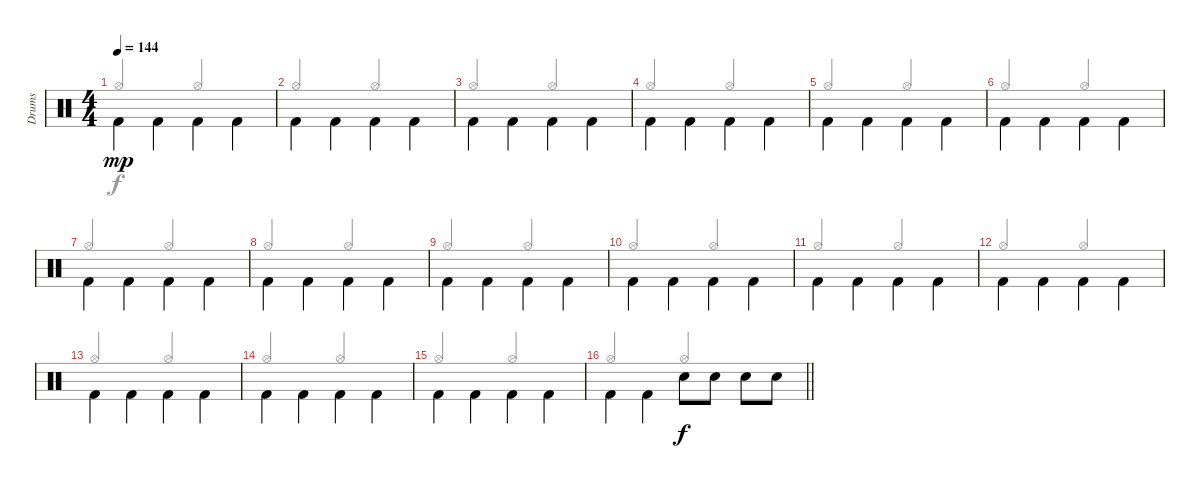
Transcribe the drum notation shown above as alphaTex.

\track ("Drums" "Drums") {instrument percussion}
\staff {score}
\articulation defaults
\voice
\ts (4 4)
\tempo 144
\clef neutral
\ks c "Kick (hit) 2".4{dy mp beam Down} "Kick (hit) 2".4{beam Down} "Kick (hit) 2".4{beam Down} "Kick (hit) 2".4{beam Down}
|
"Kick (hit) 2".4{beam Down} "Kick (hit) 2".4{beam Down} "Kick (hit) 2".4{beam Down} "Kick (hit) 2".4{beam Down} |
"Kick (hit) 2".4{beam Down} "Kick (hit) 2".4{beam Down} "Kick (hit) 2".4{beam Down} "Kick (hit) 2".4{beam Down} |
"Kick (hit) 2".4{beam Down} "Kick (hit) 2".4{beam Down} "Kick (hit) 2".4{beam Down} "Kick (hit) 2".4{beam Down} |
"Kick (hit) 2".4{beam Down} "Kick (hit) 2".4{beam Down} "Kick (hit) 2".4{beam Down} "Kick (hit) 2".4{beam Down} |
"Kick (hit) 2".4{beam Down} "Kick (hit) 2".4{beam Down} "Kick (hit) 2".4{beam Down} "Kick (hit) 2".4{beam Down} |
"Kick (hit) 2".4{beam Down} "Kick (hit) 2".4{beam Down} "Kick (hit) 2".4{beam Down} "Kick (hit) 2".4{beam Down} |
"Kick (hit) 2".4{beam Down} "Kick (hit) 2".4{beam Down} "Kick (hit) 2".4{beam Down} "Kick (hit) 2".4{beam Down} |
"Kick (hit) 2".4{beam Down} "Kick (hit) 2".4{beam Down} "Kick (hit) 2".4{beam Down} "Kick (hit) 2".4{beam Down} |
"Kick (hit) 2".4{beam Down} "Kick (hit) 2".4{beam Down} "Kick (hit) 2".4{beam Down} "Kick (hit) 2".4{beam Down} |
"Kick (hit) 2".4{beam Down} "Kick (hit) 2".4{beam Down} "Kick (hit) 2".4{beam Down} "Kick (hit) 2".4{beam Down} |
"Kick (hit) 2".4{beam Down} "Kick (hit) 2".4{beam Down} "Kick (hit) 2".4{beam Down} "Kick (hit) 2".4{beam Down} |
"Kick (hit) 2".4{beam Down} "Kick (hit) 2".4{beam Down} "Kick (hit) 2".4{beam Down} "Kick (hit) 2".4{beam Down} |
"Kick (hit) 2".4{beam Down} "Kick (hit) 2".4{beam Down} "Kick (hit) 2".4{beam Down} "Kick (hit) 2".4{beam Down} |
"Kick (hit) 2".4{beam Down} "Kick (hit) 2".4{beam Down} "Kick (hit) 2".4{beam Down} "Kick (hit) 2".4{beam Down} |
\barLineRight lightlight "Kick (hit) 2".4{beam Down} "Kick (hit) 2".4{beam Down} "Snare (hit) 2".8{dy f beam Down} "Snare (hit) 2".8{beam Down} "Snare (hit) 2".8{beam Down} "Snare (hit) 2".8{beam Down}
\voice
\clef neutral
\ottava regular
\simile none
\ks c "Hi-Hat (open)".2{dy f beam Up} "Hi-Hat (open)".2{beam Up}
|
"Hi-Hat (open)".2{beam Up} "Hi-Hat (open)".2{beam Up} |
"Hi-Hat (open)".2{beam Up} "Hi-Hat (open)".2{beam Up} |
"Hi-Hat (open)".2{beam Up} "Hi-Hat (open)".2{beam Up} |
"Hi-Hat (open)".2{beam Up} "Hi-Hat (open)".2{beam Up} |
"Hi-Hat (open)".2{beam Up} "Hi-Hat (open)".2{beam Up} |
"Hi-Hat (open)".2{beam Up} "Hi-Hat (open)".2{beam Up} |
"Hi-Hat (open)".2{beam Up} "Hi-Hat (open)".2{beam Up} |
"Hi-Hat (open)".2{beam Up} "Hi-Hat (open)".2{beam Up} |
"Hi-Hat (open)".2{beam Up} "Hi-Hat (open)".2{beam Up} |
"Hi-Hat (open)".2{beam Up} "Hi-Hat (open)".2{beam Up} |
"Hi-Hat (open)".2{beam Up} "Hi-Hat (open)".2{beam Up} |
"Hi-Hat (open)".2{beam Up} "Hi-Hat (open)".2{beam Up} |
"Hi-Hat (open)".2{beam Up} "Hi-Hat (open)".2{beam Up} |
"Hi-Hat (open)".2{beam Up} "Hi-Hat (open)".2{beam Up} |
\barLineRight lightlight "Hi-Hat (open)".2{beam Up} "Hi-Hat (open)".2{beam Up}
